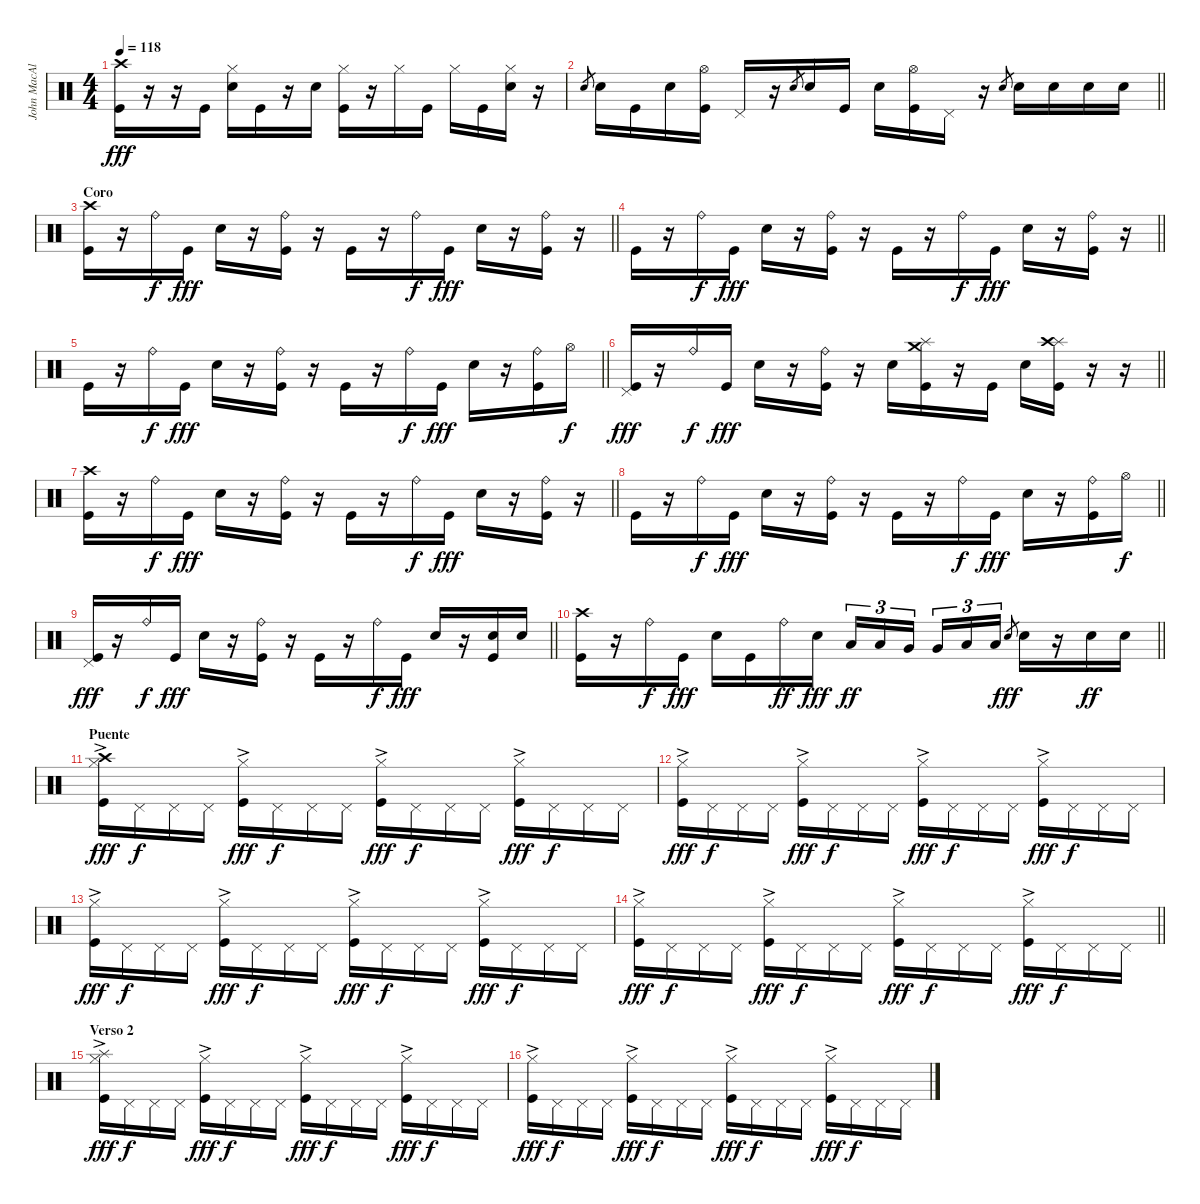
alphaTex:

\track ("John MacAluso" "John MacAl") {instrument percussion}
\staff {score}
\articulation defaults
\ts (4 4)
\tempo 118
\clef neutral
\ks c
("Crash high (hit)" "Kick (hit)").16{dy fff} r.16 r.16 "Kick (hit)".16 ("Hi-Hat (closed)" "Electric Snare (hit)").16 "Kick (hit)".16 r.16 "Electric Snare (hit)".16 ("Hi-Hat (closed)" "Kick (hit)").16 r.16 "Hi-Hat (closed)".16 "Kick (hit)".16 "Hi-Hat (closed)".16 "Kick (hit)".16 ("Hi-Hat (closed)" "Electric Snare (hit)").16 r.16 |
\barLineRight lightlight "Electric Snare (hit)".8{gr} "Electric Snare (hit)".16 "Kick (hit)".16 "Electric Snare (hit)".16
("Hi-Hat (open)" "Kick (hit)").16 "Pedal Hi-Hat (hit)".16 r.16 "Electric Snare (hit)".8{gr} "Electric Snare (hit)".16 "Kick (hit)".16 "Electric Snare (hit)".16 ("Hi-Hat (open)" "Kick (hit)").16 "Pedal Hi-Hat (hit)".16 r.16 "Electric Snare (hit)".8{gr} "Electric Snare (hit)".16 "Electric Snare (hit)".16 "Electric Snare (hit)".16 "Electric Snare (hit)".16 |
\section ("" "Coro")
\barLineRight lightlight
("Crash high (hit)" "Kick (hit)").16 r.16 "Ride (bell)".16{dy f} "Kick (hit)".16{dy fff} "Electric Snare (hit)".16 r.16 ("Ride (bell)" "Kick (hit)").16 r.16 "Kick (hit)".16 r.16 "Ride (bell)".16{dy f} "Kick (hit)".16{dy fff} "Electric Snare (hit)".16 r.16 ("Ride (bell)" "Kick (hit)").16 r.16 |
\barLineRight lightlight "Kick (hit)".16
r.16 "Ride (bell)".16{dy f} "Kick (hit)".16{dy fff} "Electric Snare (hit)".16 r.16 ("Ride (bell)" "Kick (hit)").16 r.16 "Kick (hit)".16 r.16 "Ride (bell)".16{dy f} "Kick (hit)".16{dy fff} "Electric Snare (hit)".16 r.16 ("Ride (bell)" "Kick (hit)").16 r.16 |
\barLineRight lightlight "Kick (hit)".16
r.16 "Ride (bell)".16{dy f} "Kick (hit)".16{dy fff} "Electric Snare (hit)".16 r.16 ("Ride (bell)" "Kick (hit)").16 r.16 "Kick (hit)".16 r.16 "Ride (bell)".16{dy f} "Kick (hit)".16{dy fff} "Electric Snare (hit)".16 r.16 ("Ride (bell)" "Kick (hit)").16 "Hi-Hat (open)".16{dy f} |
\barLineRight lightlight
("Pedal Hi-Hat (hit)" "Kick (hit)").16{dy fff} r.16 "Ride (bell)".16{dy f} "Kick (hit)".16{dy fff} "Electric Snare (hit)".16 r.16 ("Ride (bell)" "Kick (hit)").16 r.16 "Electric Snare (hit)".16 ("Splash (hit)" "Crash medium (hit)" "Kick (hit)").16 r.16 "Kick (hit)".16 "Electric Snare (hit)".16 ("Splash (hit)" "Crash high (hit)" "Kick (hit)").16 r.16 r.16 |
\barLineRight lightlight
("Crash high (hit)" "Kick (hit)").16 r.16 "Ride (bell)".16{dy f} "Kick (hit)".16{dy fff} "Electric Snare (hit)".16 r.16 ("Ride (bell)" "Kick (hit)").16 r.16 "Kick (hit)".16 r.16 "Ride (bell)".16{dy f} "Kick (hit)".16{dy fff} "Electric Snare (hit)".16 r.16 ("Ride (bell)" "Kick (hit)").16 r.16 |
\barLineRight lightlight "Kick (hit)".16
r.16 "Ride (bell)".16{dy f} "Kick (hit)".16{dy fff} "Electric Snare (hit)".16 r.16 ("Ride (bell)" "Kick (hit)").16 r.16 "Kick (hit)".16 r.16 "Ride (bell)".16{dy f} "Kick (hit)".16{dy fff} "Electric Snare (hit)".16 r.16 ("Ride (bell)" "Kick (hit)").16 "Hi-Hat (open)".16{dy f} |
\barLineRight lightlight
("Pedal Hi-Hat (hit)" "Kick (hit)").16{dy fff} r.16 "Ride (bell)".16{dy f} "Kick (hit)".16{dy fff} "Electric Snare (hit)".16 r.16 ("Ride (bell)" "Kick (hit)").16 r.16 "Kick (hit)".16 r.16 "Ride (bell)".16{dy f} "Kick (hit)".16{dy fff} "Electric Snare (hit)".16 r.16 ("Electric Snare (hit)" "Kick (hit)").16 "Electric Snare (hit)".16 |
\barLineRight lightlight
("Crash high (hit)" "Kick (hit)").16 r.16 "Ride (bell)".16{dy f} "Kick (hit)".16{dy fff} "Electric Snare (hit)".16 "Kick (hit)".16 "Ride (bell)".16{dy ff} "Electric Snare (hit)".16{dy fff} "Low Tom (hit)".16{tu (3 2) dy ff} "Low Tom (hit)".16{tu (3 2)} "Very Low Tom (hit)".16{tu (3 2) beam splitsecondary} "Very Low Tom (hit)".16{tu (3 2)} "Low Floor Tom (hit)".16{tu (3 2)} "Low Floor Tom (hit)".16{tu (3 2)} "Electric Snare (hit)".8{gr dy fff} "Electric Snare (hit)".16 r.16 "Electric Snare (hit)".16{dy ff} "Electric Snare (hit)".16 |
\section ("" "Puente")
("Crash high (hit)" "Hi-Hat (closed)"{ac} "Kick (hit)").16{dy fff} "Pedal Hi-Hat (hit)".16{dy f} "Pedal Hi-Hat (hit)".16 "Pedal Hi-Hat (hit)".16 ("Hi-Hat (closed)"{ac} "Kick (hit)").16{dy fff} "Pedal Hi-Hat (hit)".16{dy f} "Pedal Hi-Hat (hit)".16 "Pedal Hi-Hat (hit)".16 ("Hi-Hat (closed)"{ac} "Kick (hit)").16{dy fff} "Pedal Hi-Hat (hit)".16{dy f} "Pedal Hi-Hat (hit)".16 "Pedal Hi-Hat (hit)".16 ("Hi-Hat (closed)"{ac} "Kick (hit)").16{dy fff} "Pedal Hi-Hat (hit)".16{dy f} "Pedal Hi-Hat (hit)".16 "Pedal Hi-Hat (hit)".16 |
("Hi-Hat (closed)"{ac} "Kick (hit)").16{dy fff} "Pedal Hi-Hat (hit)".16{dy f} "Pedal Hi-Hat (hit)".16 "Pedal Hi-Hat (hit)".16 ("Hi-Hat (closed)"{ac} "Kick (hit)").16{dy fff} "Pedal Hi-Hat (hit)".16{dy f} "Pedal Hi-Hat (hit)".16 "Pedal Hi-Hat (hit)".16 ("Hi-Hat (closed)"{ac} "Kick (hit)").16{dy fff} "Pedal Hi-Hat (hit)".16{dy f} "Pedal Hi-Hat (hit)".16 "Pedal Hi-Hat (hit)".16 ("Hi-Hat (closed)"{ac} "Kick (hit)").16{dy fff} "Pedal Hi-Hat (hit)".16{dy f} "Pedal Hi-Hat (hit)".16 "Pedal Hi-Hat (hit)".16 |
("Hi-Hat (closed)"{ac} "Kick (hit)").16{dy fff} "Pedal Hi-Hat (hit)".16{dy f} "Pedal Hi-Hat (hit)".16 "Pedal Hi-Hat (hit)".16 ("Hi-Hat (closed)"{ac} "Kick (hit)").16{dy fff} "Pedal Hi-Hat (hit)".16{dy f} "Pedal Hi-Hat (hit)".16 "Pedal Hi-Hat (hit)".16 ("Hi-Hat (closed)"{ac} "Kick (hit)").16{dy fff} "Pedal Hi-Hat (hit)".16{dy f} "Pedal Hi-Hat (hit)".16 "Pedal Hi-Hat (hit)".16 ("Hi-Hat (closed)"{ac} "Kick (hit)").16{dy fff} "Pedal Hi-Hat (hit)".16{dy f} "Pedal Hi-Hat (hit)".16 "Pedal Hi-Hat (hit)".16 |
\barLineRight lightlight
("Hi-Hat (closed)"{ac} "Kick (hit)").16{dy fff} "Pedal Hi-Hat (hit)".16{dy f} "Pedal Hi-Hat (hit)".16 "Pedal Hi-Hat (hit)".16 ("Hi-Hat (closed)"{ac} "Kick (hit)").16{dy fff} "Pedal Hi-Hat (hit)".16{dy f} "Pedal Hi-Hat (hit)".16 "Pedal Hi-Hat (hit)".16 ("Hi-Hat (closed)"{ac} "Kick (hit)").16{dy fff} "Pedal Hi-Hat (hit)".16{dy f} "Pedal Hi-Hat (hit)".16 "Pedal Hi-Hat (hit)".16 ("Hi-Hat (closed)"{ac} "Kick (hit)").16{dy fff} "Pedal Hi-Hat (hit)".16{dy f} "Pedal Hi-Hat (hit)".16 "Pedal Hi-Hat (hit)".16 |
\section ("" "Verso 2")
("Splash (hit)" "Hi-Hat (closed)"{ac} "Kick (hit)").16{dy fff} "Pedal Hi-Hat (hit)".16{dy f} "Pedal Hi-Hat (hit)".16 "Pedal Hi-Hat (hit)".16 ("Hi-Hat (closed)"{ac} "Kick (hit)").16{dy fff} "Pedal Hi-Hat (hit)".16{dy f} "Pedal Hi-Hat (hit)".16 "Pedal Hi-Hat (hit)".16 ("Hi-Hat (closed)"{ac} "Kick (hit)").16{dy fff} "Pedal Hi-Hat (hit)".16{dy f} "Pedal Hi-Hat (hit)".16 "Pedal Hi-Hat (hit)".16 ("Hi-Hat (closed)"{ac} "Kick (hit)").16{dy fff} "Pedal Hi-Hat (hit)".16{dy f} "Pedal Hi-Hat (hit)".16 "Pedal Hi-Hat (hit)".16 |
("Hi-Hat (closed)"{ac} "Kick (hit)").16{dy fff} "Pedal Hi-Hat (hit)".16{dy f} "Pedal Hi-Hat (hit)".16 "Pedal Hi-Hat (hit)".16 ("Hi-Hat (closed)"{ac} "Kick (hit)").16{dy fff} "Pedal Hi-Hat (hit)".16{dy f} "Pedal Hi-Hat (hit)".16 "Pedal Hi-Hat (hit)".16 ("Hi-Hat (closed)"{ac} "Kick (hit)").16{dy fff} "Pedal Hi-Hat (hit)".16{dy f} "Pedal Hi-Hat (hit)".16 "Pedal Hi-Hat (hit)".16 ("Hi-Hat (closed)"{ac} "Kick (hit)").16{dy fff} "Pedal Hi-Hat (hit)".16{dy f} "Pedal Hi-Hat (hit)".16 "Pedal Hi-Hat (hit)".16
